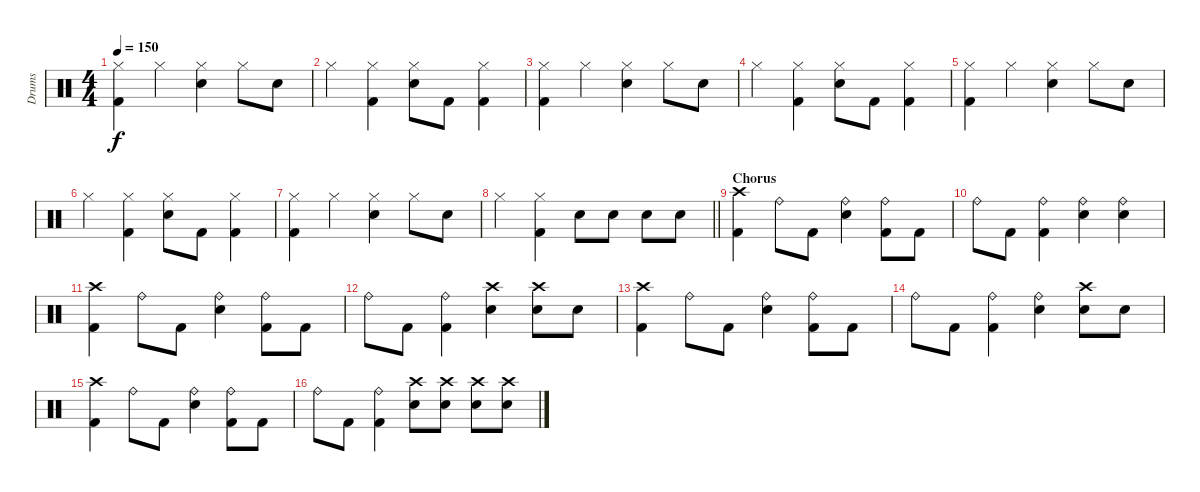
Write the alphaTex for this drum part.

\track ("Drums" "Drums") {instrument percussion}
\staff {score}
\articulation defaults
\ts (4 4)
\tempo 150
\clef neutral
\ks c
("Hi-Hat (closed)" "Kick (hit) 2").4{dy f} "Hi-Hat (closed)".4 ("Hi-Hat (closed)" "Electric Snare (hit)").4 "Hi-Hat (closed)".8 "Electric Snare (hit)".8 |
"Hi-Hat (closed)".4 ("Hi-Hat (closed)" "Kick (hit) 2").4 ("Hi-Hat (closed)" "Electric Snare (hit)").8 "Kick (hit) 2".8 ("Hi-Hat (closed)" "Kick (hit) 2").4 |
("Hi-Hat (closed)" "Kick (hit) 2").4 "Hi-Hat (closed)".4 ("Hi-Hat (closed)" "Electric Snare (hit)").4 "Hi-Hat (closed)".8 "Electric Snare (hit)".8 |
"Hi-Hat (closed)".4 ("Hi-Hat (closed)" "Kick (hit) 2").4 ("Hi-Hat (closed)" "Electric Snare (hit)").8 "Kick (hit) 2".8 ("Hi-Hat (closed)" "Kick (hit) 2").4 |
("Hi-Hat (closed)" "Kick (hit) 2").4 "Hi-Hat (closed)".4 ("Hi-Hat (closed)" "Electric Snare (hit)").4 "Hi-Hat (closed)".8 "Electric Snare (hit)".8 |
"Hi-Hat (closed)".4 ("Hi-Hat (closed)" "Kick (hit) 2").4 ("Hi-Hat (closed)" "Electric Snare (hit)").8 "Kick (hit) 2".8 ("Hi-Hat (closed)" "Kick (hit) 2").4 |
("Hi-Hat (closed)" "Kick (hit) 2").4 "Hi-Hat (closed)".4 ("Hi-Hat (closed)" "Electric Snare (hit)").4 "Hi-Hat (closed)".8 "Electric Snare (hit)".8 |
\barLineRight lightlight "Hi-Hat (closed)".4
("Hi-Hat (closed)" "Kick (hit) 2").4 "Electric Snare (hit)".8 "Electric Snare (hit)".8 "Electric Snare (hit)".8 "Electric Snare (hit)".8 |
\section ("" "Chorus")
("Crash high (hit)" "Kick (hit) 2").4 "Ride (bell)".8 "Kick (hit) 2".8 ("Ride (bell)" "Electric Snare (hit)").4 ("Ride (bell)" "Kick (hit) 2").8 "Kick (hit) 2".8 |
"Ride (bell)".8 "Kick (hit) 2".8 ("Ride (bell)" "Kick (hit) 2").4 ("Ride (bell)" "Electric Snare (hit)").4 ("Ride (bell)" "Electric Snare (hit)").4 |
("Crash high (hit)" "Kick (hit) 2").4 "Ride (bell)".8 "Kick (hit) 2".8 ("Ride (bell)" "Electric Snare (hit)").4 ("Ride (bell)" "Kick (hit) 2").8 "Kick (hit) 2".8 |
"Ride (bell)".8 "Kick (hit) 2".8 ("Ride (bell)" "Kick (hit) 2").4 ("Crash high (hit)" "Electric Snare (hit)").4 ("Crash high (hit)" "Electric Snare (hit)").8 "Electric Snare (hit)".8 |
("Crash high (hit)" "Kick (hit) 2").4 "Ride (bell)".8 "Kick (hit) 2".8 ("Ride (bell)" "Electric Snare (hit)").4 ("Ride (bell)" "Kick (hit) 2").8 "Kick (hit) 2".8 |
"Ride (bell)".8 "Kick (hit) 2".8 ("Ride (bell)" "Kick (hit) 2").4 ("Ride (bell)" "Electric Snare (hit)").4 ("Crash high (hit)" "Electric Snare (hit)").8 "Electric Snare (hit)".8 |
("Crash high (hit)" "Kick (hit) 2").4 "Ride (bell)".8 "Kick (hit) 2".8 ("Ride (bell)" "Electric Snare (hit)").4 ("Ride (bell)" "Kick (hit) 2").8 "Kick (hit) 2".8 |
"Ride (bell)".8 "Kick (hit) 2".8 ("Ride (bell)" "Kick (hit) 2").4 ("Crash high (hit)" "Electric Snare (hit)").8 ("Crash high (hit)" "Electric Snare (hit)").8 ("Crash high (hit)" "Electric Snare (hit)").8 ("Crash high (hit)" "Electric Snare (hit)").8
